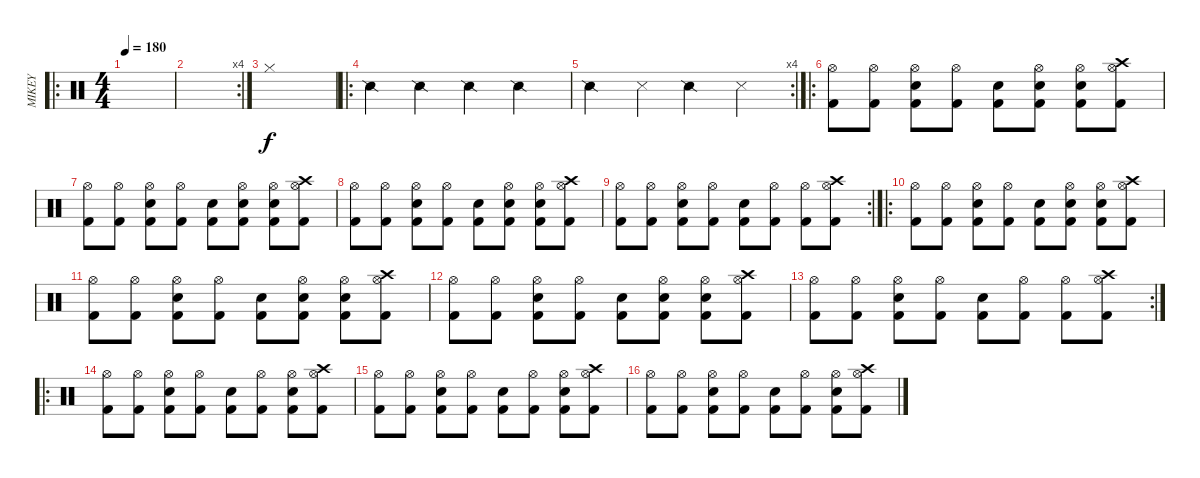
\track ("MIKEY" "MIKEY") {instrument percussion}
\staff {score}
\articulation defaults
\ro
\ts (4 4)
\tempo 180
\clef neutral
\ks c
|
\rc 4
|
"Hi-Hat (closed)".1 |
\ro "Snare (side stick) 2".4 "Snare (side stick) 2".4 "Snare (side stick) 2".4 "Snare (side stick) 2".4
|
\rc 4 "Snare (side stick) 2".4 "Snare (side stick) 3".4 "Snare (side stick) 2".4 "Snare (side stick) 3".4
|
\ro
("Hi-Hat (open)" "Kick (hit) 2").8 ("Hi-Hat (open)" "Kick (hit) 2").8 ("Snare (hit) 2" "Hi-Hat (open)" "Kick (hit) 2").8 ("Hi-Hat (open)" "Kick (hit) 2").8 ("Snare (hit) 2" "Kick (hit) 2").8 ("Snare (hit) 2" "Hi-Hat (open)" "Kick (hit) 2").8 ("Snare (hit) 2" "Hi-Hat (open)" "Kick (hit) 2").8 ("Crash high (hit)" "Hi-Hat (open)" "Kick (hit) 2").8 |
("Hi-Hat (open)" "Kick (hit) 2").8 ("Hi-Hat (open)" "Kick (hit) 2").8 ("Snare (hit) 2" "Hi-Hat (open)" "Kick (hit) 2").8 ("Hi-Hat (open)" "Kick (hit) 2").8 ("Snare (hit) 2" "Kick (hit) 2").8 ("Snare (hit) 2" "Hi-Hat (open)" "Kick (hit) 2").8 ("Snare (hit) 2" "Hi-Hat (open)" "Kick (hit) 2").8 ("Crash high (hit)" "Hi-Hat (open)" "Kick (hit) 2").8 |
("Hi-Hat (open)" "Kick (hit) 2").8 ("Hi-Hat (open)" "Kick (hit) 2").8 ("Snare (hit) 2" "Hi-Hat (open)" "Kick (hit) 2").8 ("Hi-Hat (open)" "Kick (hit) 2").8 ("Snare (hit) 2" "Kick (hit) 2").8 ("Snare (hit) 2" "Hi-Hat (open)" "Kick (hit) 2").8 ("Snare (hit) 2" "Hi-Hat (open)" "Kick (hit) 2").8 ("Crash high (hit)" "Hi-Hat (open)" "Kick (hit) 2").8 |
\rc 2
("Hi-Hat (open)" "Kick (hit) 2").8 ("Hi-Hat (open)" "Kick (hit) 2").8 ("Snare (hit) 2" "Hi-Hat (open)" "Kick (hit) 2").8 ("Hi-Hat (open)" "Kick (hit) 2").8 ("Snare (hit) 2" "Kick (hit) 2").8 ("Hi-Hat (open)" "Kick (hit) 2").8 ("Hi-Hat (open)" "Kick (hit) 2").8 ("Crash high (hit)" "Hi-Hat (open)" "Kick (hit) 2").8 |
\ro
("Hi-Hat (open)" "Kick (hit) 2").8 ("Hi-Hat (open)" "Kick (hit) 2").8 ("Snare (hit) 2" "Hi-Hat (open)" "Kick (hit) 2").8 ("Hi-Hat (open)" "Kick (hit) 2").8 ("Snare (hit) 2" "Kick (hit) 2").8 ("Snare (hit) 2" "Hi-Hat (open)" "Kick (hit) 2").8 ("Snare (hit) 2" "Hi-Hat (open)" "Kick (hit) 2").8 ("Crash high (hit)" "Hi-Hat (open)" "Kick (hit) 2").8 |
("Hi-Hat (open)" "Kick (hit) 2").8 ("Hi-Hat (open)" "Kick (hit) 2").8 ("Snare (hit) 2" "Hi-Hat (open)" "Kick (hit) 2").8 ("Hi-Hat (open)" "Kick (hit) 2").8 ("Snare (hit) 2" "Kick (hit) 2").8 ("Snare (hit) 2" "Hi-Hat (open)" "Kick (hit) 2").8 ("Snare (hit) 2" "Hi-Hat (open)" "Kick (hit) 2").8 ("Crash high (hit)" "Hi-Hat (open)" "Kick (hit) 2").8 |
("Hi-Hat (open)" "Kick (hit) 2").8 ("Hi-Hat (open)" "Kick (hit) 2").8 ("Snare (hit) 2" "Hi-Hat (open)" "Kick (hit) 2").8 ("Hi-Hat (open)" "Kick (hit) 2").8 ("Snare (hit) 2" "Kick (hit) 2").8 ("Snare (hit) 2" "Hi-Hat (open)" "Kick (hit) 2").8 ("Snare (hit) 2" "Hi-Hat (open)" "Kick (hit) 2").8 ("Crash high (hit)" "Hi-Hat (open)" "Kick (hit) 2").8 |
\rc 2
("Hi-Hat (open)" "Kick (hit) 2").8 ("Hi-Hat (open)" "Kick (hit) 2").8 ("Snare (hit) 2" "Hi-Hat (open)" "Kick (hit) 2").8 ("Hi-Hat (open)" "Kick (hit) 2").8 ("Snare (hit) 2" "Kick (hit) 2").8 ("Hi-Hat (open)" "Kick (hit) 2").8 ("Hi-Hat (open)" "Kick (hit) 2").8 ("Crash high (hit)" "Hi-Hat (open)" "Kick (hit) 2").8 |
\ro
("Hi-Hat (open)" "Kick (hit) 2").8 ("Hi-Hat (open)" "Kick (hit) 2").8 ("Snare (hit) 2" "Hi-Hat (open)" "Kick (hit) 2").8 ("Hi-Hat (open)" "Kick (hit) 2").8 ("Snare (hit) 2" "Kick (hit) 2").8 ("Hi-Hat (open)" "Kick (hit) 2").8 ("Snare (hit) 2" "Hi-Hat (open)" "Kick (hit) 2").8 ("Crash high (hit)" "Hi-Hat (open)" "Kick (hit) 2").8 |
("Hi-Hat (open)" "Kick (hit) 2").8 ("Hi-Hat (open)" "Kick (hit) 2").8 ("Snare (hit) 2" "Hi-Hat (open)" "Kick (hit) 2").8 ("Hi-Hat (open)" "Kick (hit) 2").8 ("Snare (hit) 2" "Kick (hit) 2").8 ("Hi-Hat (open)" "Kick (hit) 2").8 ("Snare (hit) 2" "Hi-Hat (open)" "Kick (hit) 2").8 ("Crash high (hit)" "Hi-Hat (open)" "Kick (hit) 2").8 |
("Hi-Hat (open)" "Kick (hit) 2").8 ("Hi-Hat (open)" "Kick (hit) 2").8 ("Snare (hit) 2" "Hi-Hat (open)" "Kick (hit) 2").8 ("Hi-Hat (open)" "Kick (hit) 2").8 ("Snare (hit) 2" "Kick (hit) 2").8 ("Hi-Hat (open)" "Kick (hit) 2").8 ("Snare (hit) 2" "Hi-Hat (open)" "Kick (hit) 2").8 ("Crash high (hit)" "Hi-Hat (open)" "Kick (hit) 2").8
